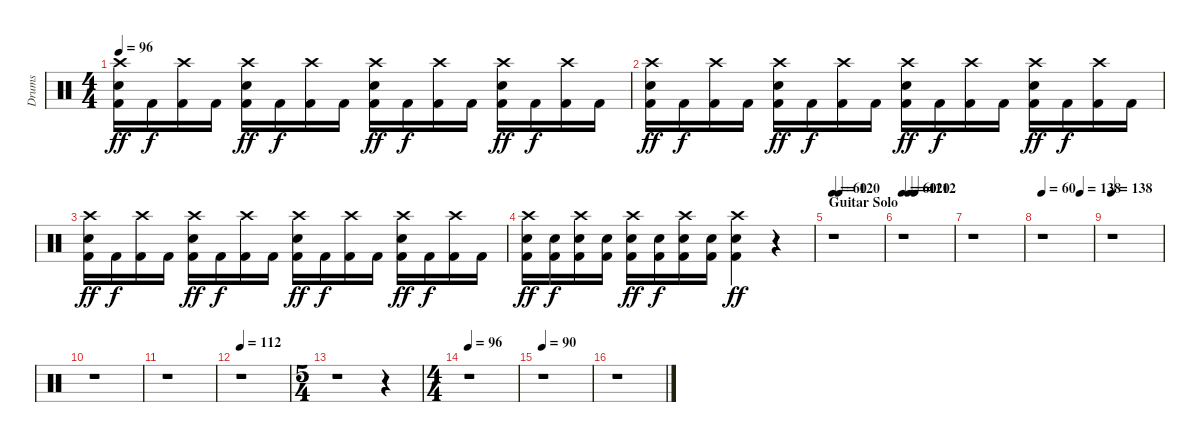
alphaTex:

\track ("Drums" "Drums") {instrument percussion}
\staff {score}
\articulation defaults
\ts (4 4)
\tempo 96
\clef neutral
\ks c
("Crash high (hit)" "Electric Snare (hit)" "Kick (hit) 2").16{dy ff} "Kick (hit) 2".16{dy f} ("Crash high (hit)" "Kick (hit) 2").16 "Kick (hit) 2".16 ("Crash high (hit)" "Electric Snare (hit)" "Kick (hit) 2").16{dy ff} "Kick (hit) 2".16{dy f} ("Crash high (hit)" "Kick (hit) 2").16 "Kick (hit) 2".16 ("Crash high (hit)" "Electric Snare (hit)" "Kick (hit) 2").16{dy ff} "Kick (hit) 2".16{dy f} ("Crash high (hit)" "Kick (hit) 2").16 "Kick (hit) 2".16 ("Crash high (hit)" "Electric Snare (hit)" "Kick (hit) 2").16{dy ff} "Kick (hit) 2".16{dy f} ("Crash high (hit)" "Kick (hit) 2").16 "Kick (hit) 2".16 |
("Crash high (hit)" "Electric Snare (hit)" "Kick (hit) 2").16{dy ff} "Kick (hit) 2".16{dy f} ("Crash high (hit)" "Kick (hit) 2").16 "Kick (hit) 2".16 ("Crash high (hit)" "Electric Snare (hit)" "Kick (hit) 2").16{dy ff} "Kick (hit) 2".16{dy f} ("Crash high (hit)" "Kick (hit) 2").16 "Kick (hit) 2".16 ("Crash high (hit)" "Electric Snare (hit)" "Kick (hit) 2").16{dy ff} "Kick (hit) 2".16{dy f} ("Crash high (hit)" "Kick (hit) 2").16 "Kick (hit) 2".16 ("Crash high (hit)" "Electric Snare (hit)" "Kick (hit) 2").16{dy ff} "Kick (hit) 2".16{dy f} ("Crash high (hit)" "Kick (hit) 2").16 "Kick (hit) 2".16 |
("Crash high (hit)" "Electric Snare (hit)" "Kick (hit) 2").16{dy ff} "Kick (hit) 2".16{dy f} ("Crash high (hit)" "Kick (hit) 2").16 "Kick (hit) 2".16 ("Crash high (hit)" "Electric Snare (hit)" "Kick (hit) 2").16{dy ff} "Kick (hit) 2".16{dy f} ("Crash high (hit)" "Kick (hit) 2").16 "Kick (hit) 2".16 ("Crash high (hit)" "Electric Snare (hit)" "Kick (hit) 2").16{dy ff} "Kick (hit) 2".16{dy f} ("Crash high (hit)" "Kick (hit) 2").16 "Kick (hit) 2".16 ("Crash high (hit)" "Electric Snare (hit)" "Kick (hit) 2").16{dy ff} "Kick (hit) 2".16{dy f} ("Crash high (hit)" "Kick (hit) 2").16 "Kick (hit) 2".16 |
("Crash high (hit)" "Electric Snare (hit)" "Kick (hit) 2").16{dy ff} ("Electric Snare (hit)" "Kick (hit) 2").16{dy f} ("Crash high (hit)" "Electric Snare (hit)" "Kick (hit) 2").16 ("Electric Snare (hit)" "Kick (hit) 2").16 ("Crash high (hit)" "Electric Snare (hit)" "Kick (hit) 2").16{dy ff} ("Electric Snare (hit)" "Kick (hit) 2").16{dy f} ("Crash high (hit)" "Electric Snare (hit)" "Kick (hit) 2").16 ("Electric Snare (hit)" "Kick (hit) 2").16 ("Crash high (hit)" "Electric Snare (hit)" "Kick (hit) 2").4{dy ff} r.4 |
\section ("" "Guitar Solo")
\tempo 60
\tempo (120 0.125)
r.1 |
\tempo 60
\tempo (120 0.125)
\tempo (112 0.25)
r.1 |
r.1 |
\tempo 60
\tempo (138 0.75)
r.1 |
\tempo 138
r.1 |
r.1 |
r.1 |
\tempo 112
r.1 |
\ts (5 4)
r.1 r.4 |
\ts (4 4)
\tempo 96
r.1 |
\tempo 90
r.1 |
r.1
